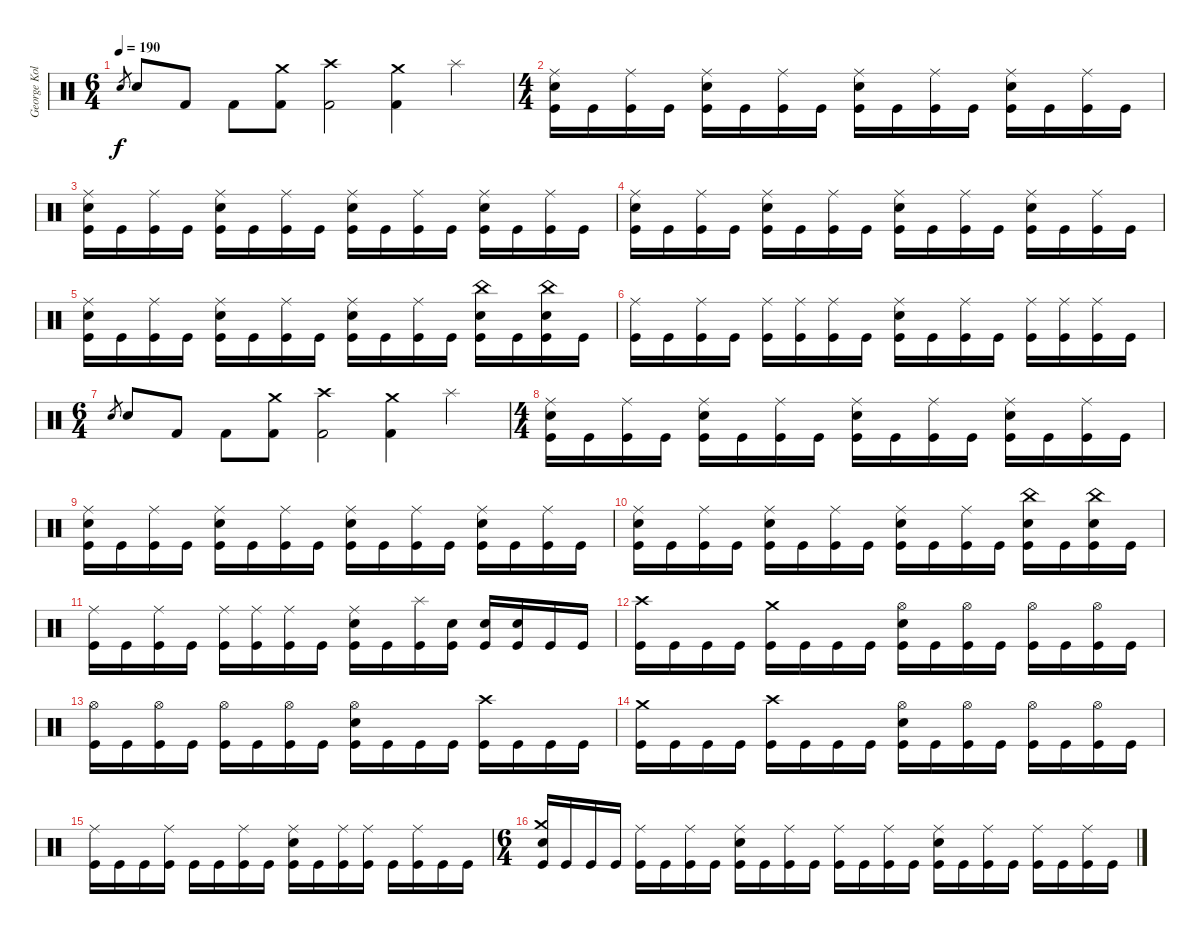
\track ("George Kollias" "George Kol") {instrument percussion}
\staff {score}
\articulation defaults
\ts (6 4)
\tempo 190
\clef neutral
\ks c "Snare (hit) 2".8{gr dy f} "Snare (hit) 2".8 "Kick (hit) 2".8 "Kick (hit) 2".8
("Crash medium (hit)" "Kick (hit) 2").8 ("Crash high (hit)" "Kick (hit) 2").2 ("Crash medium (hit)" "Kick (hit) 2").4 "Splash (hit)".4 |
\ts (4 4)
("Ride (middle)" "Snare (hit) 2" "Kick (hit)").16 "Kick (hit)".16 ("Ride (middle)" "Kick (hit)").16 "Kick (hit)".16 ("Ride (middle)" "Snare (hit) 2" "Kick (hit)").16 "Kick (hit)".16 ("Ride (middle)" "Kick (hit)").16 "Kick (hit)".16 ("Ride (middle)" "Snare (hit) 2" "Kick (hit)").16 "Kick (hit)".16 ("Ride (middle)" "Kick (hit)").16 "Kick (hit)".16 ("Ride (middle)" "Snare (hit) 2" "Kick (hit)").16 "Kick (hit)".16 ("Ride (middle)" "Kick (hit)").16 "Kick (hit)".16 |
("Ride (middle)" "Snare (hit) 2" "Kick (hit)").16 "Kick (hit)".16 ("Ride (middle)" "Kick (hit)").16 "Kick (hit)".16 ("Ride (middle)" "Snare (hit) 2" "Kick (hit)").16 "Kick (hit)".16 ("Ride (middle)" "Kick (hit)").16 "Kick (hit)".16 ("Ride (middle)" "Snare (hit) 2" "Kick (hit)").16 "Kick (hit)".16 ("Ride (middle)" "Kick (hit)").16 "Kick (hit)".16 ("Ride (middle)" "Snare (hit) 2" "Kick (hit)").16 "Kick (hit)".16 ("Ride (middle)" "Kick (hit)").16 "Kick (hit)".16 |
("Ride (middle)" "Snare (hit) 2" "Kick (hit)").16 "Kick (hit)".16 ("Ride (middle)" "Kick (hit)").16 "Kick (hit)".16 ("Ride (middle)" "Snare (hit) 2" "Kick (hit)").16 "Kick (hit)".16 ("Ride (middle)" "Kick (hit)").16 "Kick (hit)".16 ("Ride (middle)" "Snare (hit) 2" "Kick (hit)").16 "Kick (hit)".16 ("Ride (middle)" "Kick (hit)").16 "Kick (hit)".16 ("Ride (middle)" "Snare (hit) 2" "Kick (hit)").16 "Kick (hit)".16 ("Ride (middle)" "Kick (hit)").16 "Kick (hit)".16 |
("Ride (middle)" "Snare (hit) 2" "Kick (hit)").16 "Kick (hit)".16 ("Ride (middle)" "Kick (hit)").16 "Kick (hit)".16 ("Ride (middle)" "Snare (hit) 2" "Kick (hit)").16 "Kick (hit)".16 ("Ride (middle)" "Kick (hit)").16 "Kick (hit)".16 ("Ride (middle)" "Snare (hit) 2" "Kick (hit)").16 "Kick (hit)".16 ("Ride (middle)" "Kick (hit)").16 "Kick (hit)".16 ("China (hit)" "Snare (hit) 2" "Kick (hit)").16 "Kick (hit)".16 ("China (hit)" "Snare (hit) 2" "Kick (hit)").16 "Kick (hit)".16 |
("Ride (middle)" "Kick (hit)").16 "Kick (hit)".16 ("Ride (middle)" "Kick (hit)").16 "Kick (hit)".16 ("Ride (middle)" "Kick (hit)").16 ("Ride (middle)" "Kick (hit)").16 ("Ride (middle)" "Kick (hit)").16 "Kick (hit)".16 ("Ride (middle)" "Snare (hit) 2" "Kick (hit)").16 "Kick (hit)".16 ("Ride (middle)" "Kick (hit)").16 "Kick (hit)".16 ("Ride (middle)" "Kick (hit)").16 ("Ride (middle)" "Kick (hit)").16 ("Ride (middle)" "Kick (hit)").16 "Kick (hit)".16 |
\ts (6 4)
"Snare (hit) 2".8{gr} "Snare (hit) 2".8 "Kick (hit) 2".8 "Kick (hit) 2".8 ("Crash medium (hit)" "Kick (hit) 2").8 ("Crash high (hit)" "Kick (hit) 2").2 ("Crash medium (hit)" "Kick (hit) 2").4 "Splash (hit)".4 |
\ts (4 4)
("Ride (middle)" "Snare (hit) 2" "Kick (hit)").16 "Kick (hit)".16 ("Ride (middle)" "Kick (hit)").16 "Kick (hit)".16 ("Ride (middle)" "Snare (hit) 2" "Kick (hit)").16 "Kick (hit)".16 ("Ride (middle)" "Kick (hit)").16 "Kick (hit)".16 ("Ride (middle)" "Snare (hit) 2" "Kick (hit)").16 "Kick (hit)".16 ("Ride (middle)" "Kick (hit)").16 "Kick (hit)".16 ("Ride (middle)" "Snare (hit) 2" "Kick (hit)").16 "Kick (hit)".16 ("Ride (middle)" "Kick (hit)").16 "Kick (hit)".16 |
("Ride (middle)" "Snare (hit) 2" "Kick (hit)").16 "Kick (hit)".16 ("Ride (middle)" "Kick (hit)").16 "Kick (hit)".16 ("Ride (middle)" "Snare (hit) 2" "Kick (hit)").16 "Kick (hit)".16 ("Ride (middle)" "Kick (hit)").16 "Kick (hit)".16 ("Ride (middle)" "Snare (hit) 2" "Kick (hit)").16 "Kick (hit)".16 ("Ride (middle)" "Kick (hit)").16 "Kick (hit)".16 ("Ride (middle)" "Snare (hit) 2" "Kick (hit)").16 "Kick (hit)".16 ("Ride (middle)" "Kick (hit)").16 "Kick (hit)".16 |
("Ride (middle)" "Snare (hit) 2" "Kick (hit)").16 "Kick (hit)".16 ("Ride (middle)" "Kick (hit)").16 "Kick (hit)".16 ("Ride (middle)" "Snare (hit) 2" "Kick (hit)").16 "Kick (hit)".16 ("Ride (middle)" "Kick (hit)").16 "Kick (hit)".16 ("Ride (middle)" "Snare (hit) 2" "Kick (hit)").16 "Kick (hit)".16 ("Ride (middle)" "Kick (hit)").16 "Kick (hit)".16 ("China (hit)" "Snare (hit) 2" "Kick (hit)").16 "Kick (hit)".16 ("China (hit)" "Snare (hit) 2" "Kick (hit)").16 "Kick (hit)".16 |
("Ride (middle)" "Kick (hit)").16 "Kick (hit)".16 ("Ride (middle)" "Kick (hit)").16 "Kick (hit)".16 ("Ride (middle)" "Kick (hit)").16 ("Ride (middle)" "Kick (hit)").16 ("Ride (middle)" "Kick (hit)").16 "Kick (hit)".16 ("Ride (middle)" "Snare (hit) 2" "Kick (hit)").16 "Kick (hit)".16 ("Splash (hit)" "Kick (hit)").16 ("Snare (hit) 2" "Kick (hit)").16 ("Snare (hit) 2" "Kick (hit)").16 ("Snare (hit) 2" "Kick (hit)").16 "Kick (hit)".16 "Kick (hit)".16 |
("Crash high (hit)" "Kick (hit)").16 "Kick (hit)".16 "Kick (hit)".16 "Kick (hit)".16 ("Crash medium (hit)" "Kick (hit)").16 "Kick (hit)".16 "Kick (hit)".16 "Kick (hit)".16 ("Hi-Hat (open)" "Snare (hit) 2" "Kick (hit)").16 "Kick (hit)".16 ("Hi-Hat (open)" "Kick (hit)").16 "Kick (hit)".16 ("Hi-Hat (open)" "Kick (hit)").16 "Kick (hit)".16 ("Hi-Hat (open)" "Kick (hit)").16 "Kick (hit)".16 |
("Hi-Hat (open)" "Kick (hit)").16 "Kick (hit)".16 ("Hi-Hat (open)" "Kick (hit)").16 "Kick (hit)".16 ("Hi-Hat (open)" "Kick (hit)").16 "Kick (hit)".16 ("Hi-Hat (open)" "Kick (hit)").16 "Kick (hit)".16 ("Hi-Hat (open)" "Snare (hit) 2" "Kick (hit)").16 "Kick (hit)".16 "Kick (hit)".16 "Kick (hit)".16 ("Crash high (hit)" "Kick (hit)").16 "Kick (hit)".16 "Kick (hit)".16 "Kick (hit)".16 |
("Crash medium (hit)" "Kick (hit)").16 "Kick (hit)".16 "Kick (hit)".16 "Kick (hit)".16 ("Crash high (hit)" "Kick (hit)").16 "Kick (hit)".16 "Kick (hit)".16 "Kick (hit)".16 ("Hi-Hat (open)" "Snare (hit) 2" "Kick (hit)").16 "Kick (hit)".16 ("Hi-Hat (open)" "Kick (hit)").16 "Kick (hit)".16 ("Hi-Hat (open)" "Kick (hit)").16 "Kick (hit)".16 ("Hi-Hat (open)" "Kick (hit)").16 "Kick (hit)".16 |
("Ride (middle)" "Kick (hit)").16 "Kick (hit)".16 "Kick (hit)".16 ("Ride (middle)" "Kick (hit)").16 "Kick (hit)".16 "Kick (hit)".16 ("Ride (middle)" "Kick (hit)").16 "Kick (hit)".16 ("Ride (middle)" "Snare (hit) 2" "Kick (hit)").16 "Kick (hit)".16 ("Ride (middle)" "Kick (hit)").16 ("Ride (middle)" "Kick (hit)").16 "Kick (hit)".16 ("Ride (middle)" "Kick (hit)").16 "Kick (hit)".16 "Kick (hit)".16 |
\ts (6 4)
("Crash medium (hit)" "Snare (hit) 2" "Kick (hit)").16 "Kick (hit)".16 "Kick (hit)".16 "Kick (hit)".16 ("Ride (middle)" "Kick (hit)").16 "Kick (hit)".16 ("Ride (middle)" "Kick (hit)").16 "Kick (hit)".16 ("Ride (middle)" "Snare (hit) 2" "Kick (hit)").16 "Kick (hit)".16 ("Ride (middle)" "Kick (hit)").16 "Kick (hit)".16 ("Ride (middle)" "Kick (hit)").16 "Kick (hit)".16 ("Ride (middle)" "Kick (hit)").16 "Kick (hit)".16 ("Ride (middle)" "Snare (hit) 2" "Kick (hit)").16 "Kick (hit)".16 ("Ride (middle)" "Kick (hit)").16 "Kick (hit)".16 ("Ride (middle)" "Kick (hit)").16 "Kick (hit)".16 ("Ride (middle)" "Kick (hit)").16 "Kick (hit)".16
